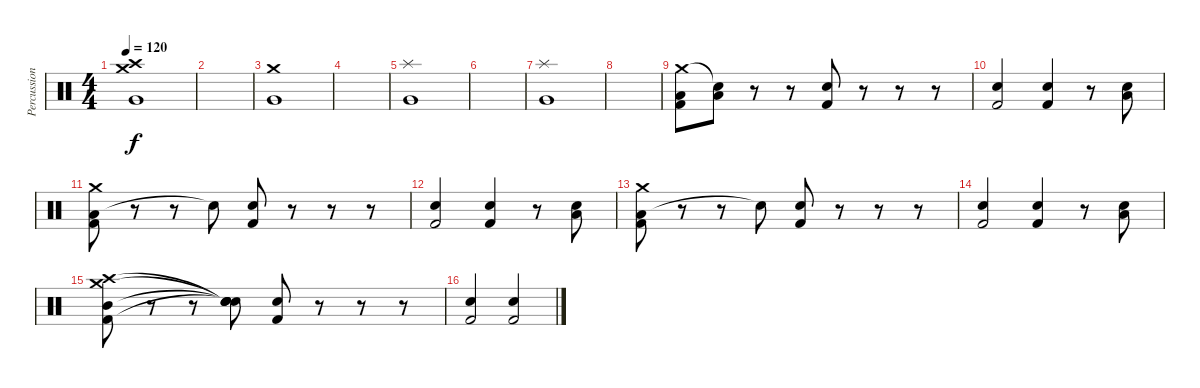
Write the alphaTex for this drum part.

\track ("Percussion" "Percussion") {instrument percussion}
\staff {score}
\articulation defaults
\ts (4 4)
\tempo 120
\clef neutral
\ks c
("Crash medium (hit)" "Crash high (hit)" "Very Low Tom (hit)").1{dy f} |
|
("Crash medium (hit)" "Very Low Tom (hit)").1 |
|
("Splash (hit)" "Very Low Tom (hit)").1 |
|
("Splash (hit)" "Very Low Tom (hit)").1 |
|
("Low Floor Tom (hit)" "Crash medium (hit)" "Kick (hit) 2").8 ("Low Tom (hit)" "Snare (hit)"{t}).8 r.8 r.8 ("Metronome (bell)" "Kick (hit) 2").8 r.8 r.8 r.8 |
("Metronome (bell)" "Kick (hit) 2").2 ("Metronome (bell)" "Kick (hit) 2").4 r.8 ("Snare (hit) 2" "Low Floor Tom (hit)").8 |
("Low Tom (hit)" "Crash medium (hit)" "Kick (hit) 2").8 r.8 r.8 "Snare (hit)"{t}.8 ("Metronome (bell)" "Kick (hit) 2").8 r.8 r.8 r.8 |
("Metronome (bell)" "Kick (hit) 2").2 ("Metronome (bell)" "Kick (hit) 2").4 r.8 ("Snare (hit) 2" "Low Floor Tom (hit)").8 |
("Low Tom (hit)" "Crash medium (hit)" "Kick (hit) 2").8 r.8 r.8 "Snare (hit)"{t}.8 ("Metronome (bell)" "Kick (hit) 2").8 r.8 r.8 r.8 |
("Metronome (bell)" "Kick (hit) 2").2 ("Metronome (bell)" "Kick (hit) 2").4 r.8 ("Snare (hit) 2" "Low Tom (hit)").8 |
("Mid Tom (hit)" "Crash medium (hit)" "Kick (hit) 2" "Crash high (hit)").8 r.8 r.8 ("Snare (hit)"{t} "Snare (hit)"{t} "Snare (hit)"{t} "Snare (hit)"{t}).8 ("Metronome (bell)" "Kick (hit) 2").8 r.8 r.8 r.8 |
("Metronome (bell)" "Kick (hit) 2").2 ("Metronome (bell)" "Kick (hit) 2").2
